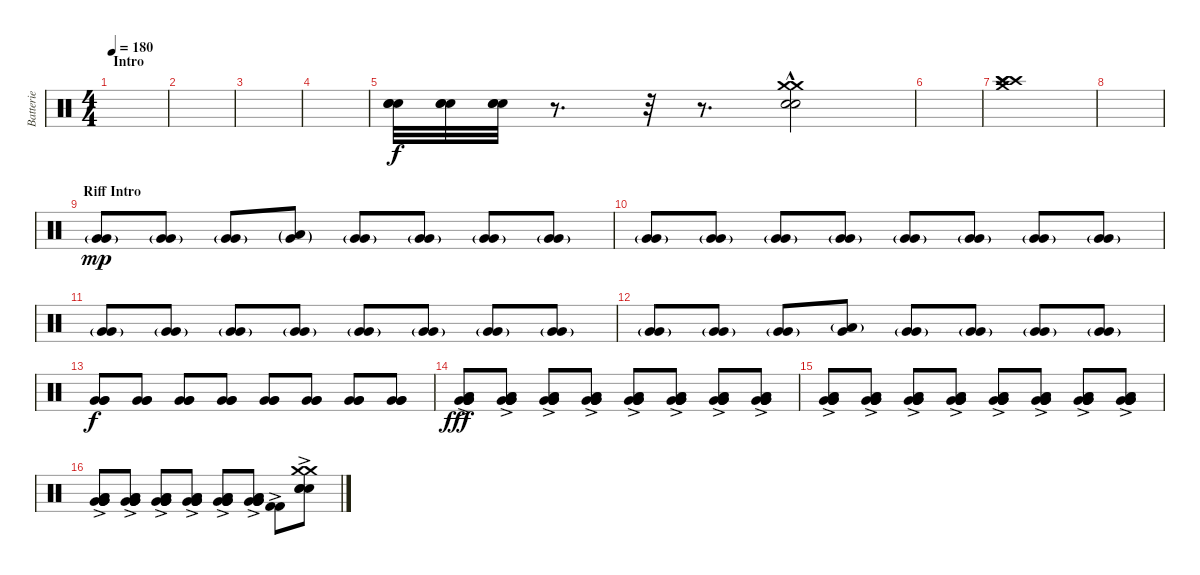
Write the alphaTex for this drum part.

\track ("Batterie" "Batterie") {instrument percussion}
\staff {score}
\articulation defaults
\ts (4 4)
\section ("" "Intro")
\tempo 180
\clef neutral
\ks c
|
|
|
|
("Electric Snare (hit)" "Electric Snare (hit)" "Electric Snare (hit)").32{volume 16 balance 8} ("Electric Snare (hit)" "Electric Snare (hit)" "Electric Snare (hit)").32 ("Electric Snare (hit)" "Electric Snare (hit)" "Electric Snare (hit)").32 r.8{d} r.32 r.8{d} ("Crash medium (hit)" "Crash medium (hit)" "Electric Snare (hit)" "Electric Snare (hit)"{hac}).2 |
|
("Crash high (hit)" "Crash high (hit)" "Crash high (hit)" "Crash medium (hit)").1 |
|
\section ("" "Riff Intro")
("Very Low Tom (hit)"{g} "Very Low Tom (hit)"{g}).8{dy mp} ("Very Low Tom (hit)"{g} "Very Low Tom (hit)"{g}).8 ("Very Low Tom (hit)"{g} "Very Low Tom (hit)"{g}).8 ("Very Low Tom (hit)"{g} "Low Floor Tom (hit)"{g}).8 ("Very Low Tom (hit)"{g} "Very Low Tom (hit)"{g}).8 ("Very Low Tom (hit)"{g} "Very Low Tom (hit)"{g}).8 ("Very Low Tom (hit)"{g} "Very Low Tom (hit)"{g}).8 ("Very Low Tom (hit)"{g} "Very Low Tom (hit)"{g}).8 |
("Very Low Tom (hit)"{g} "Very Low Tom (hit)"{g}).8 ("Very Low Tom (hit)"{g} "Very Low Tom (hit)"{g}).8 ("Very Low Tom (hit)"{g} "Very Low Tom (hit)"{g}).8 ("Very Low Tom (hit)"{g} "Very Low Tom (hit)"{g}).8 ("Very Low Tom (hit)"{g} "Very Low Tom (hit)"{g}).8 ("Very Low Tom (hit)"{g} "Very Low Tom (hit)"{g}).8 ("Very Low Tom (hit)"{g} "Very Low Tom (hit)"{g}).8 ("Very Low Tom (hit)"{g} "Very Low Tom (hit)"{g}).8 |
("Very Low Tom (hit)" "Very Low Tom (hit)"{g}).8 ("Very Low Tom (hit)" "Very Low Tom (hit)"{g}).8 ("Very Low Tom (hit)" "Very Low Tom (hit)"{g}).8 ("Very Low Tom (hit)" "Very Low Tom (hit)"{g}).8 ("Very Low Tom (hit)" "Very Low Tom (hit)"{g}).8 ("Very Low Tom (hit)" "Very Low Tom (hit)"{g}).8 ("Very Low Tom (hit)" "Very Low Tom (hit)"{g}).8 ("Very Low Tom (hit)" "Very Low Tom (hit)"{g}).8 |
("Very Low Tom (hit)" "Very Low Tom (hit)"{g}).8 ("Very Low Tom (hit)" "Very Low Tom (hit)"{g}).8 ("Very Low Tom (hit)" "Very Low Tom (hit)"{g}).8 ("Very Low Tom (hit)" "Low Floor Tom (hit)"{g}).8 ("Very Low Tom (hit)" "Very Low Tom (hit)"{g}).8 ("Very Low Tom (hit)" "Very Low Tom (hit)"{g}).8 ("Very Low Tom (hit)" "Very Low Tom (hit)"{g}).8 ("Very Low Tom (hit)" "Very Low Tom (hit)"{g}).8 |
("Very Low Tom (hit)" "Very Low Tom (hit)" "Very Low Tom (hit)").8{dy f} ("Very Low Tom (hit)" "Very Low Tom (hit)" "Very Low Tom (hit)").8 ("Very Low Tom (hit)" "Very Low Tom (hit)" "Very Low Tom (hit)").8 ("Very Low Tom (hit)" "Very Low Tom (hit)" "Very Low Tom (hit)").8 ("Very Low Tom (hit)" "Very Low Tom (hit)" "Very Low Tom (hit)").8 ("Very Low Tom (hit)" "Very Low Tom (hit)" "Very Low Tom (hit)").8 ("Very Low Tom (hit)" "Very Low Tom (hit)" "Very Low Tom (hit)").8 ("Very Low Tom (hit)" "Very Low Tom (hit)" "Very Low Tom (hit)").8 |
("Low Floor Tom (hit)"{ac} "Low Floor Tom (hit)"{ac} "Very Low Tom (hit)"{ac} "Very Low Tom (hit)"{ac} "Very Low Tom (hit)"{ac} "Very Low Tom (hit)"{ac}).8{dy fff} ("Low Floor Tom (hit)"{ac} "Low Floor Tom (hit)"{ac} "Very Low Tom (hit)"{ac} "Very Low Tom (hit)"{ac} "Very Low Tom (hit)"{ac} "Very Low Tom (hit)"{ac}).8 ("Low Floor Tom (hit)" "Low Floor Tom (hit)"{ac} "Very Low Tom (hit)"{ac} "Very Low Tom (hit)"{ac} "Very Low Tom (hit)"{ac} "Very Low Tom (hit)"{ac}).8 ("Low Floor Tom (hit)"{ac} "Low Floor Tom (hit)"{ac} "Very Low Tom (hit)"{ac} "Very Low Tom (hit)"{ac} "Very Low Tom (hit)"{ac} "Very Low Tom (hit)"{ac}).8 ("Low Floor Tom (hit)"{ac} "Low Floor Tom (hit)"{ac} "Very Low Tom (hit)"{ac} "Very Low Tom (hit)"{ac} "Very Low Tom (hit)"{ac} "Very Low Tom (hit)"{ac}).8 ("Low Floor Tom (hit)"{ac} "Low Floor Tom (hit)"{ac} "Very Low Tom (hit)"{ac} "Very Low Tom (hit)"{ac} "Very Low Tom (hit)"{ac} "Very Low Tom (hit)"{ac}).8 ("Low Floor Tom (hit)"{ac} "Low Floor Tom (hit)"{ac} "Very Low Tom (hit)"{ac} "Very Low Tom (hit)"{ac} "Very Low Tom (hit)" "Very Low Tom (hit)"{ac}).8 ("Low Floor Tom (hit)"{ac} "Low Floor Tom (hit)"{ac} "Very Low Tom (hit)"{ac} "Very Low Tom (hit)"{ac} "Very Low Tom (hit)"{ac} "Very Low Tom (hit)"{ac}).8 |
("Low Floor Tom (hit)"{ac} "Low Floor Tom (hit)"{ac} "Very Low Tom (hit)"{ac} "Very Low Tom (hit)"{ac} "Very Low Tom (hit)"{ac} "Very Low Tom (hit)"{ac}).8 ("Low Floor Tom (hit)"{ac} "Low Floor Tom (hit)"{ac} "Very Low Tom (hit)"{ac} "Very Low Tom (hit)"{ac} "Very Low Tom (hit)"{ac} "Very Low Tom (hit)"{ac}).8 ("Low Floor Tom (hit)"{ac} "Low Floor Tom (hit)"{ac} "Very Low Tom (hit)"{ac} "Very Low Tom (hit)"{ac} "Very Low Tom (hit)"{ac} "Very Low Tom (hit)"{ac}).8 ("Low Floor Tom (hit)"{ac} "Low Floor Tom (hit)"{ac} "Very Low Tom (hit)"{ac} "Very Low Tom (hit)"{ac} "Very Low Tom (hit)"{ac} "Very Low Tom (hit)"{ac}).8 ("Low Floor Tom (hit)"{ac} "Low Floor Tom (hit)"{ac} "Very Low Tom (hit)"{ac} "Very Low Tom (hit)"{ac} "Very Low Tom (hit)"{ac} "Very Low Tom (hit)"{ac}).8 ("Low Floor Tom (hit)"{ac} "Low Floor Tom (hit)"{ac} "Very Low Tom (hit)"{ac} "Very Low Tom (hit)"{ac} "Very Low Tom (hit)"{ac} "Very Low Tom (hit)"{ac}).8 ("Low Floor Tom (hit)"{ac} "Low Floor Tom (hit)"{ac} "Very Low Tom (hit)"{ac} "Very Low Tom (hit)"{ac} "Very Low Tom (hit)" "Very Low Tom (hit)"{ac}).8 ("Low Floor Tom (hit)"{ac} "Low Floor Tom (hit)"{ac} "Very Low Tom (hit)"{ac} "Very Low Tom (hit)"{ac} "Very Low Tom (hit)"{ac} "Very Low Tom (hit)"{ac}).8 |
("Low Floor Tom (hit)"{ac} "Low Floor Tom (hit)"{ac} "Very Low Tom (hit)"{ac} "Very Low Tom (hit)"{ac} "Very Low Tom (hit)"{ac} "Very Low Tom (hit)"{ac}).8 ("Low Floor Tom (hit)"{ac} "Low Floor Tom (hit)"{ac} "Very Low Tom (hit)"{ac} "Very Low Tom (hit)"{ac} "Very Low Tom (hit)"{ac} "Very Low Tom (hit)"{ac}).8 ("Low Floor Tom (hit)" "Low Floor Tom (hit)"{ac} "Very Low Tom (hit)"{ac} "Very Low Tom (hit)"{ac} "Very Low Tom (hit)"{ac} "Very Low Tom (hit)"{ac}).8 ("Low Floor Tom (hit)"{ac} "Low Floor Tom (hit)"{ac} "Very Low Tom (hit)"{ac} "Very Low Tom (hit)"{ac} "Very Low Tom (hit)"{ac} "Very Low Tom (hit)"{ac}).8 ("Low Floor Tom (hit)"{ac} "Low Floor Tom (hit)"{ac} "Very Low Tom (hit)"{ac} "Very Low Tom (hit)"{ac} "Very Low Tom (hit)"{ac} "Very Low Tom (hit)"{ac}).8 ("Low Floor Tom (hit)"{ac} "Low Floor Tom (hit)"{ac} "Very Low Tom (hit)"{ac} "Very Low Tom (hit)"{ac} "Very Low Tom (hit)"{ac} "Very Low Tom (hit)"{ac}).8 ("Kick (hit) 2" "Kick (hit) 2"{ac}).8 ("Crash medium (hit)" "Crash medium (hit)" "Electric Snare (hit)" "Electric Snare (hit)" "Electric Snare (hit)"{ac}).8
